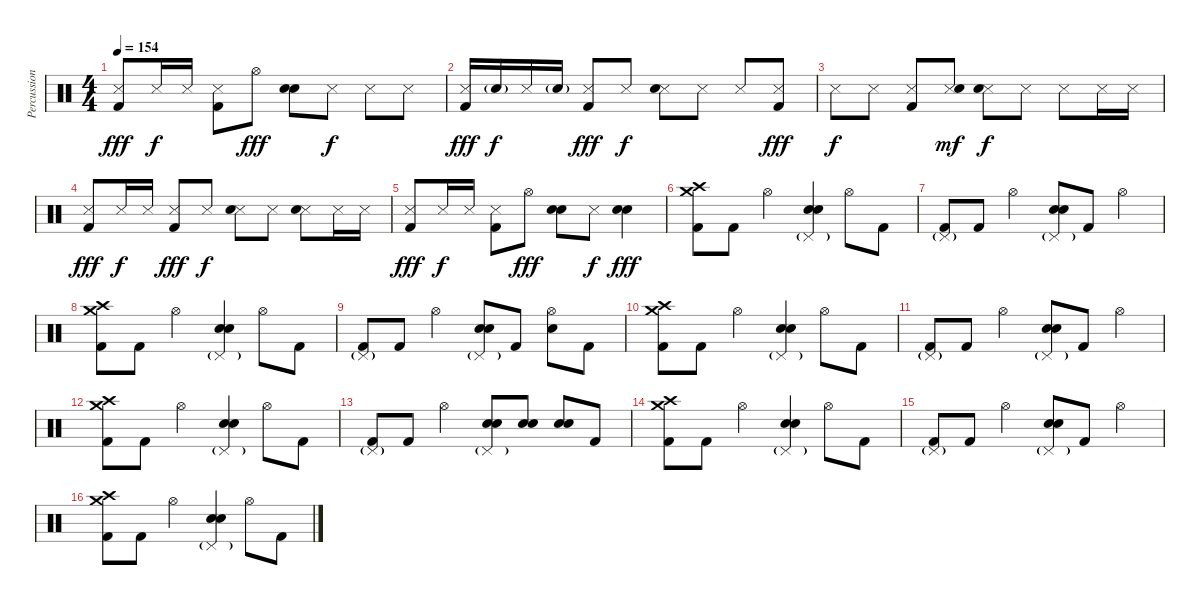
\track ("Percussion" "Percussion") {instrument percussion}
\staff {score}
\articulation defaults
\ts (4 4)
\tempo 154
\clef neutral
\ks c
("Snare (side stick) 3" "Kick (hit) 2").8{dy fff} "Snare (side stick) 3".16{dy f} "Snare (side stick) 3".16 ("Snare (side stick) 3" "Kick (hit) 2").8 "Hi-Hat (open)".8{dy fff} ("Snare (hit) 2" "Snare (hit) 2").8{bd 30} "Snare (side stick) 3".8{dy f} "Snare (side stick) 3".8 "Snare (side stick) 3".8 |
("Snare (side stick) 3" "Kick (hit) 2").16{dy fff} "Snare (hit) 2"{g}.16{dy f} "Snare (side stick) 3".16 "Snare (hit) 2"{g}.16 ("Snare (side stick) 3" "Kick (hit) 2").8{dy fff} "Snare (side stick) 3".8{dy f} ("Snare (side stick) 3" "Electric Snare (hit)").8 "Snare (side stick) 3".8 "Snare (side stick) 3".8 ("Snare (side stick) 3" "Kick (hit) 2").8{dy fff} |
"Snare (side stick) 3".8{dy f} "Snare (side stick) 3".8 ("Snare (side stick) 3" "Kick (hit) 2").8 ("Snare (side stick) 3" "Snare (hit) 2").8{dy mf} ("Snare (side stick) 3" "Electric Snare (hit)").8{dy f} "Snare (side stick) 3".8 "Snare (side stick) 3".8 "Snare (side stick) 3".16 "Snare (side stick) 3".16 |
("Snare (side stick) 3" "Kick (hit) 2").8{dy fff} "Snare (side stick) 3".16{dy f} "Snare (side stick) 3".16 ("Snare (side stick) 3" "Kick (hit) 2").8{dy fff} "Snare (side stick) 3".8{dy f} ("Snare (side stick) 3" "Electric Snare (hit)").8 "Snare (side stick) 3".8 ("Snare (side stick) 3" "Electric Snare (hit)").8 "Snare (side stick) 3".16 "Snare (side stick) 3".16 |
("Snare (side stick) 3" "Kick (hit) 2").8{dy fff} "Snare (side stick) 3".16{dy f} "Snare (side stick) 3".16 ("Snare (side stick) 3" "Kick (hit) 2").8 "Hi-Hat (open)".8{dy fff} ("Snare (hit) 2" "Snare (hit) 2").8{bd 30} "Snare (side stick) 3".8{dy f} ("Electric Snare (hit)" "Electric Snare (hit)").4{bd 240 dy fff volume 16} |
("Crash high (hit)" "Crash medium (hit)" "Kick (hit) 2").8 "Kick (hit) 2".8 "Hi-Hat (open)".4 ("Pedal Hi-Hat (hit)"{g} "Electric Snare (hit)" "Electric Snare (hit)").4{bd 240} "Hi-Hat (open)".8 "Kick (hit) 2".8 |
("Pedal Hi-Hat (hit)"{g} "Kick (hit) 2").8 "Kick (hit) 2".8 "Hi-Hat (open)".4 ("Pedal Hi-Hat (hit)"{g} "Electric Snare (hit)" "Electric Snare (hit)").8{bd 240} "Kick (hit) 2".8 "Hi-Hat (open)".4 |
("Crash high (hit)" "Crash medium (hit)" "Kick (hit) 2").8 "Kick (hit) 2".8 "Hi-Hat (open)".4 ("Pedal Hi-Hat (hit)"{g} "Electric Snare (hit)" "Electric Snare (hit)").4{bd 240} "Hi-Hat (open)".8 "Kick (hit) 2".8 |
("Pedal Hi-Hat (hit)"{g} "Kick (hit) 2").8 "Kick (hit) 2".8 "Hi-Hat (open)".4 ("Pedal Hi-Hat (hit)"{g} "Electric Snare (hit)" "Electric Snare (hit)").8{bd 240} "Kick (hit) 2".8 ("Hi-Hat (open)" "Electric Snare (hit)").8 "Kick (hit) 2".8 |
("Crash high (hit)" "Crash medium (hit)" "Kick (hit) 2").8 "Kick (hit) 2".8 "Hi-Hat (open)".4 ("Pedal Hi-Hat (hit)"{g} "Electric Snare (hit)" "Electric Snare (hit)").4{bd 240} "Hi-Hat (open)".8 "Kick (hit) 2".8 |
("Pedal Hi-Hat (hit)"{g} "Kick (hit) 2").8 "Kick (hit) 2".8 "Hi-Hat (open)".4 ("Pedal Hi-Hat (hit)"{g} "Electric Snare (hit)" "Electric Snare (hit)").8{bd 240} "Kick (hit) 2".8 "Hi-Hat (open)".4 |
("Crash high (hit)" "Crash medium (hit)" "Kick (hit) 2").8 "Kick (hit) 2".8 "Hi-Hat (open)".4 ("Pedal Hi-Hat (hit)"{g} "Electric Snare (hit)" "Electric Snare (hit)").4{bd 240} "Hi-Hat (open)".8 "Kick (hit) 2".8 |
("Pedal Hi-Hat (hit)"{g} "Kick (hit) 2").8 "Kick (hit) 2".8 "Hi-Hat (open)".4 ("Pedal Hi-Hat (hit)"{g} "Electric Snare (hit)" "Electric Snare (hit)").8{bd 240} ("Electric Snare (hit)" "Electric Snare (hit)").8{bd 240} ("Electric Snare (hit)" "Electric Snare (hit)").8{bd 240} "Kick (hit) 2".8 |
("Crash high (hit)" "Crash medium (hit)" "Kick (hit) 2").8 "Kick (hit) 2".8 "Hi-Hat (open)".4 ("Pedal Hi-Hat (hit)"{g} "Electric Snare (hit)" "Electric Snare (hit)").4{bd 240} "Hi-Hat (open)".8 "Kick (hit) 2".8 |
("Pedal Hi-Hat (hit)"{g} "Kick (hit) 2").8 "Kick (hit) 2".8 "Hi-Hat (open)".4 ("Pedal Hi-Hat (hit)"{g} "Electric Snare (hit)" "Electric Snare (hit)").8{bd 240} "Kick (hit) 2".8 "Hi-Hat (open)".4 |
("Crash high (hit)" "Crash medium (hit)" "Kick (hit) 2").8 "Kick (hit) 2".8 "Hi-Hat (open)".4 ("Pedal Hi-Hat (hit)"{g} "Electric Snare (hit)" "Electric Snare (hit)").4{bd 240} "Hi-Hat (open)".8 "Kick (hit) 2".8
